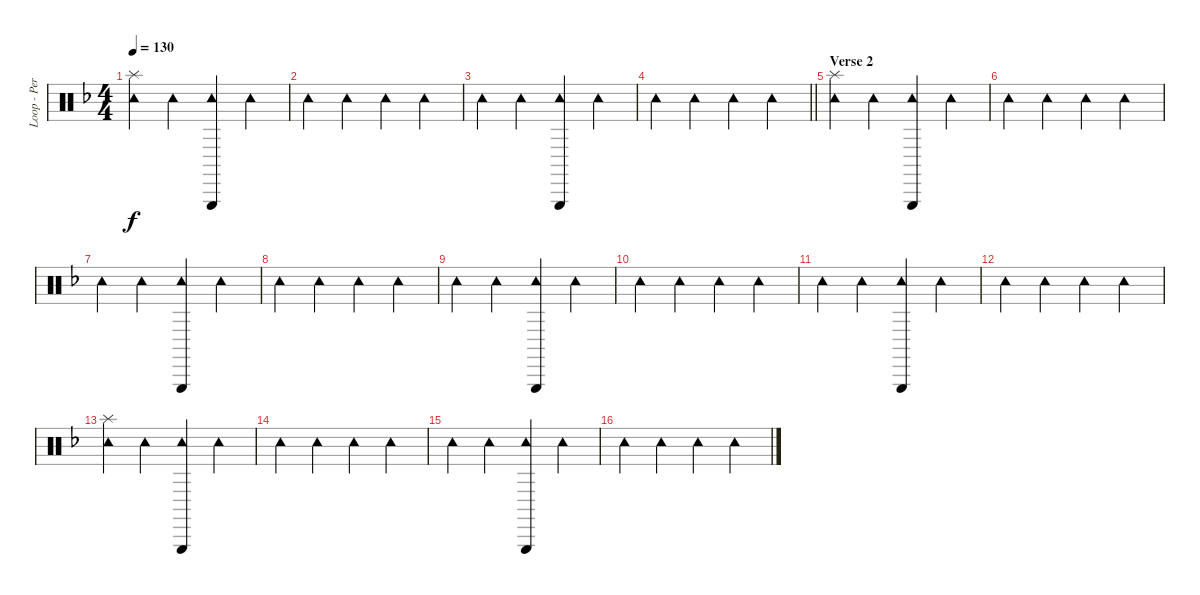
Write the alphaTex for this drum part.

\track ("Loop - Percussion FX" "Loop - Per") {instrument percussion}
\staff {score}
\articulation defaults
\ts (4 4)
\tempo 130
\clef neutral
\ks f
("Tambourine (hit)" "Splash (hit)").4{dy f} "Tambourine (hit)".4 ("Tambourine (hit)" "Triangle (hit)").4 "Tambourine (hit)".4 |
"Tambourine (hit)".4 "Tambourine (hit)".4 "Tambourine (hit)".4 "Tambourine (hit)".4 |
"Tambourine (hit)".4 "Tambourine (hit)".4 ("Tambourine (hit)" "Triangle (hit)").4 "Tambourine (hit)".4 |
\barLineRight lightlight "Tambourine (hit)".4 "Tambourine (hit)".4 "Tambourine (hit)".4 "Tambourine (hit)".4
|
\section ("" "Verse 2")
("Tambourine (hit)" "Splash (hit)").4 "Tambourine (hit)".4 ("Tambourine (hit)" "Triangle (hit)").4 "Tambourine (hit)".4 |
"Tambourine (hit)".4 "Tambourine (hit)".4 "Tambourine (hit)".4 "Tambourine (hit)".4 |
"Tambourine (hit)".4 "Tambourine (hit)".4 ("Tambourine (hit)" "Triangle (hit)").4 "Tambourine (hit)".4 |
"Tambourine (hit)".4 "Tambourine (hit)".4 "Tambourine (hit)".4 "Tambourine (hit)".4 |
"Tambourine (hit)".4 "Tambourine (hit)".4 ("Tambourine (hit)" "Triangle (hit)").4 "Tambourine (hit)".4 |
"Tambourine (hit)".4 "Tambourine (hit)".4 "Tambourine (hit)".4 "Tambourine (hit)".4 |
"Tambourine (hit)".4 "Tambourine (hit)".4 ("Tambourine (hit)" "Triangle (hit)").4 "Tambourine (hit)".4 |
"Tambourine (hit)".4 "Tambourine (hit)".4 "Tambourine (hit)".4 "Tambourine (hit)".4 |
("Tambourine (hit)" "Splash (hit)").4 "Tambourine (hit)".4 ("Tambourine (hit)" "Triangle (hit)").4 "Tambourine (hit)".4 |
"Tambourine (hit)".4 "Tambourine (hit)".4 "Tambourine (hit)".4 "Tambourine (hit)".4 |
"Tambourine (hit)".4 "Tambourine (hit)".4 ("Tambourine (hit)" "Triangle (hit)").4 "Tambourine (hit)".4 |
"Tambourine (hit)".4 "Tambourine (hit)".4 "Tambourine (hit)".4 "Tambourine (hit)".4
